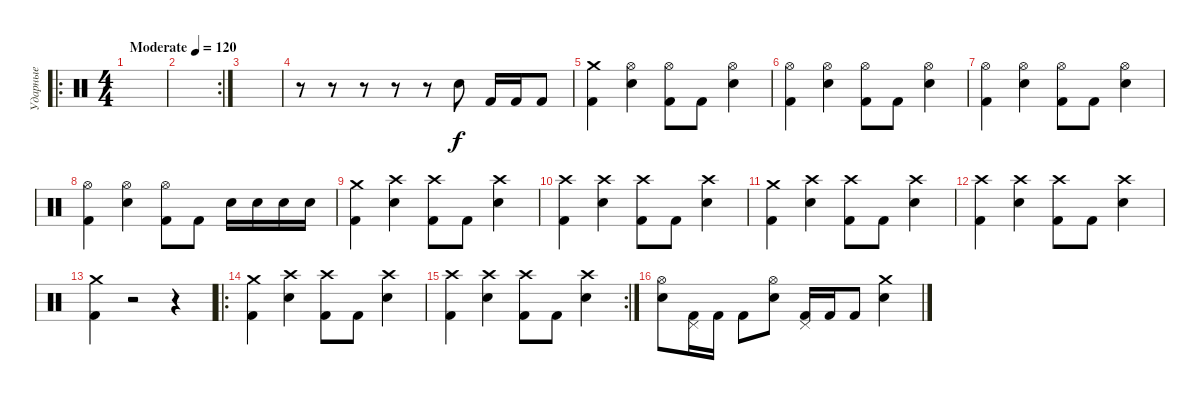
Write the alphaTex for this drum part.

\track ("Ударные" "Ударные") {instrument percussion}
\staff {score}
\articulation defaults
\ro
\ts (4 4)
\tempo (120 "Moderate")
\clef neutral
\ks c
|
\rc 2
|
|
r.8 r.8 r.8 r.8 r.8 "Electric Snare (hit)".8 "Kick (hit) 2".16 "Kick (hit) 2".16 "Kick (hit) 2".8 |
("Crash medium (hit)" "Kick (hit) 2").4 ("Hi-Hat (open)" "Electric Snare (hit)").4 ("Hi-Hat (open)" "Kick (hit) 2").8 "Kick (hit) 2".8 ("Hi-Hat (open)" "Electric Snare (hit)").4 |
("Hi-Hat (open)" "Kick (hit) 2").4 ("Hi-Hat (open)" "Electric Snare (hit)").4 ("Hi-Hat (open)" "Kick (hit) 2").8 "Kick (hit) 2".8 ("Hi-Hat (open)" "Electric Snare (hit)").4 |
("Hi-Hat (open)" "Kick (hit) 2").4 ("Hi-Hat (open)" "Electric Snare (hit)").4 ("Hi-Hat (open)" "Kick (hit) 2").8 "Kick (hit) 2".8 ("Hi-Hat (open)" "Electric Snare (hit)").4 |
("Hi-Hat (open)" "Kick (hit) 2").4 ("Hi-Hat (open)" "Electric Snare (hit)").4 ("Hi-Hat (open)" "Kick (hit) 2").8 "Kick (hit) 2".8 "Electric Snare (hit)".16 "Electric Snare (hit)".16 "Electric Snare (hit)".16 "Electric Snare (hit)".16 |
("Crash medium (hit)" "Kick (hit) 2").4 ("Crash high (hit)" "Electric Snare (hit)").4 ("Crash high (hit)" "Kick (hit) 2").8 "Kick (hit) 2".8 ("Crash high (hit)" "Electric Snare (hit)").4 |
("Crash high (hit)" "Kick (hit) 2").4 ("Crash high (hit)" "Electric Snare (hit)").4 ("Crash high (hit)" "Kick (hit) 2").8 "Kick (hit) 2".8 ("Crash high (hit)" "Electric Snare (hit)").4 |
("Crash medium (hit)" "Kick (hit) 2").4 ("Crash high (hit)" "Electric Snare (hit)").4 ("Crash high (hit)" "Kick (hit) 2").8 "Kick (hit) 2".8 ("Crash high (hit)" "Electric Snare (hit)").4 |
("Crash high (hit)" "Kick (hit) 2").4 ("Crash high (hit)" "Electric Snare (hit)").4 ("Crash high (hit)" "Kick (hit) 2").8 "Kick (hit) 2".8 ("Crash high (hit)" "Electric Snare (hit)").4 |
("Crash medium (hit)" "Kick (hit) 2").4 r.2 r.4 |
\ro
("Crash medium (hit)" "Kick (hit) 2").4 ("Crash high (hit)" "Electric Snare (hit)").4 ("Crash high (hit)" "Kick (hit) 2").8 "Kick (hit) 2".8 ("Crash high (hit)" "Electric Snare (hit)").4 |
\rc 2
("Crash high (hit)" "Kick (hit) 2").4 ("Crash high (hit)" "Electric Snare (hit)").4 ("Crash high (hit)" "Kick (hit) 2").8 "Kick (hit) 2".8 ("Crash high (hit)" "Electric Snare (hit)").4 |
("Hi-Hat (open)" "Electric Snare (hit)").8 ("Pedal Hi-Hat (hit)" "Kick (hit) 2").16 "Kick (hit) 2".16 "Kick (hit) 2".8 ("Hi-Hat (open)" "Electric Snare (hit)").8 ("Pedal Hi-Hat (hit)" "Kick (hit) 2").16 "Kick (hit) 2".16 "Kick (hit) 2".8 ("Crash medium (hit)" "Electric Snare (hit)").4
